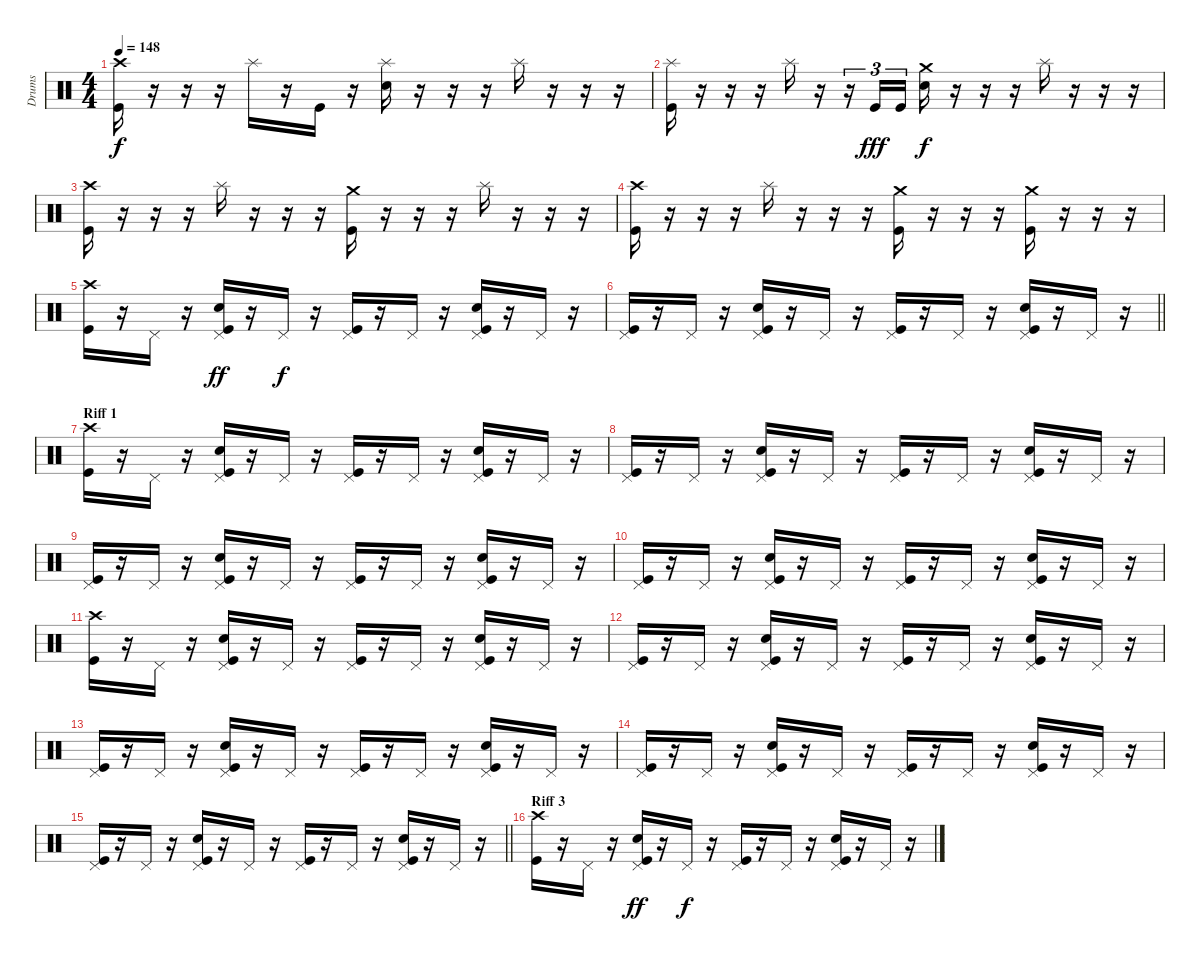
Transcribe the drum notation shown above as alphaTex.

\track ("Drums" "Drums") {instrument percussion}
\staff {score}
\articulation defaults
\ts (4 4)
\tempo 148
\clef neutral
\ks c
("Crash high (hit)" "Kick (hit)").16{dy f} r.16 r.16 r.16 "Splash (hit)".16 r.16 "Kick (hit)".16 r.16 ("Splash (hit)" "Electric Snare (hit)").16 r.16 r.16 r.16 "Splash (hit)".16 r.16 r.16 r.16 |
("Splash (hit)" "Kick (hit)").16 r.16 r.16 r.16 "Splash (hit)".16 r.16 r.16{tu (3 2)} "Kick (hit)".16{tu (3 2) dy fff} "Kick (hit)".16{tu (3 2)} ("Crash medium (hit)" "Electric Snare (hit)").16{dy f} r.16 r.16 r.16 "Splash (hit)".16 r.16 r.16 r.16 |
("Crash high (hit)" "Kick (hit)").16 r.16 r.16 r.16 "Splash (hit)".16 r.16 r.16 r.16 ("Crash medium (hit)" "Kick (hit)").16 r.16 r.16 r.16 "Splash (hit)".16 r.16 r.16 r.16 |
("Crash high (hit)" "Kick (hit)").16 r.16 r.16 r.16 "Splash (hit)".16 r.16 r.16 r.16 ("Crash medium (hit)" "Kick (hit)").16 r.16 r.16 r.16 ("Crash medium (hit)" "Kick (hit)").16 r.16 r.16 r.16 |
("Crash high (hit)" "Kick (hit)").16 r.16 "Pedal Hi-Hat (hit)".16 r.16 ("Pedal Hi-Hat (hit)" "Electric Snare (hit)" "Kick (hit)").16{dy ff} r.16 "Pedal Hi-Hat (hit)".16{dy f} r.16 ("Pedal Hi-Hat (hit)" "Kick (hit)").16 r.16 "Pedal Hi-Hat (hit)".16 r.16 ("Pedal Hi-Hat (hit)" "Electric Snare (hit)" "Kick (hit)").16 r.16 "Pedal Hi-Hat (hit)".16 r.16 |
\barLineRight lightlight
("Pedal Hi-Hat (hit)" "Kick (hit)").16 r.16 "Pedal Hi-Hat (hit)".16 r.16 ("Pedal Hi-Hat (hit)" "Electric Snare (hit)" "Kick (hit)").16 r.16 "Pedal Hi-Hat (hit)".16 r.16 ("Pedal Hi-Hat (hit)" "Kick (hit)").16 r.16 "Pedal Hi-Hat (hit)".16 r.16 ("Pedal Hi-Hat (hit)" "Electric Snare (hit)" "Kick (hit)").16 r.16 "Pedal Hi-Hat (hit)".16 r.16 |
\section ("" "Riff 1")
("Crash high (hit)" "Kick (hit)").16 r.16 "Pedal Hi-Hat (hit)".16 r.16 ("Pedal Hi-Hat (hit)" "Electric Snare (hit)" "Kick (hit)").16 r.16 "Pedal Hi-Hat (hit)".16 r.16 ("Pedal Hi-Hat (hit)" "Kick (hit)").16 r.16 "Pedal Hi-Hat (hit)".16 r.16 ("Pedal Hi-Hat (hit)" "Electric Snare (hit)" "Kick (hit)").16 r.16 "Pedal Hi-Hat (hit)".16 r.16 |
("Pedal Hi-Hat (hit)" "Kick (hit)").16 r.16 "Pedal Hi-Hat (hit)".16 r.16 ("Pedal Hi-Hat (hit)" "Electric Snare (hit)" "Kick (hit)").16 r.16 "Pedal Hi-Hat (hit)".16 r.16 ("Pedal Hi-Hat (hit)" "Kick (hit)").16 r.16 "Pedal Hi-Hat (hit)".16 r.16 ("Pedal Hi-Hat (hit)" "Electric Snare (hit)" "Kick (hit)").16 r.16 "Pedal Hi-Hat (hit)".16 r.16 |
("Pedal Hi-Hat (hit)" "Kick (hit)").16 r.16 "Pedal Hi-Hat (hit)".16 r.16 ("Pedal Hi-Hat (hit)" "Electric Snare (hit)" "Kick (hit)").16 r.16 "Pedal Hi-Hat (hit)".16 r.16 ("Pedal Hi-Hat (hit)" "Kick (hit)").16 r.16 "Pedal Hi-Hat (hit)".16 r.16 ("Pedal Hi-Hat (hit)" "Electric Snare (hit)" "Kick (hit)").16 r.16 "Pedal Hi-Hat (hit)".16 r.16 |
("Pedal Hi-Hat (hit)" "Kick (hit)").16 r.16 "Pedal Hi-Hat (hit)".16 r.16 ("Pedal Hi-Hat (hit)" "Electric Snare (hit)" "Kick (hit)").16 r.16 "Pedal Hi-Hat (hit)".16 r.16 ("Pedal Hi-Hat (hit)" "Kick (hit)").16 r.16 "Pedal Hi-Hat (hit)".16 r.16 ("Pedal Hi-Hat (hit)" "Electric Snare (hit)" "Kick (hit)").16 r.16 "Pedal Hi-Hat (hit)".16 r.16 |
("Crash high (hit)" "Kick (hit)").16 r.16 "Pedal Hi-Hat (hit)".16 r.16 ("Pedal Hi-Hat (hit)" "Electric Snare (hit)" "Kick (hit)").16 r.16 "Pedal Hi-Hat (hit)".16 r.16 ("Pedal Hi-Hat (hit)" "Kick (hit)").16 r.16 "Pedal Hi-Hat (hit)".16 r.16 ("Pedal Hi-Hat (hit)" "Electric Snare (hit)" "Kick (hit)").16 r.16 "Pedal Hi-Hat (hit)".16 r.16 |
("Pedal Hi-Hat (hit)" "Kick (hit)").16 r.16 "Pedal Hi-Hat (hit)".16 r.16 ("Pedal Hi-Hat (hit)" "Electric Snare (hit)" "Kick (hit)").16 r.16 "Pedal Hi-Hat (hit)".16 r.16 ("Pedal Hi-Hat (hit)" "Kick (hit)").16 r.16 "Pedal Hi-Hat (hit)".16 r.16 ("Pedal Hi-Hat (hit)" "Electric Snare (hit)" "Kick (hit)").16 r.16 "Pedal Hi-Hat (hit)".16 r.16 |
("Pedal Hi-Hat (hit)" "Kick (hit)").16 r.16 "Pedal Hi-Hat (hit)".16 r.16 ("Pedal Hi-Hat (hit)" "Electric Snare (hit)" "Kick (hit)").16 r.16 "Pedal Hi-Hat (hit)".16 r.16 ("Pedal Hi-Hat (hit)" "Kick (hit)").16 r.16 "Pedal Hi-Hat (hit)".16 r.16 ("Pedal Hi-Hat (hit)" "Electric Snare (hit)" "Kick (hit)").16 r.16 "Pedal Hi-Hat (hit)".16 r.16 |
("Pedal Hi-Hat (hit)" "Kick (hit)").16 r.16 "Pedal Hi-Hat (hit)".16 r.16 ("Pedal Hi-Hat (hit)" "Electric Snare (hit)" "Kick (hit)").16 r.16 "Pedal Hi-Hat (hit)".16 r.16 ("Pedal Hi-Hat (hit)" "Kick (hit)").16 r.16 "Pedal Hi-Hat (hit)".16 r.16 ("Pedal Hi-Hat (hit)" "Electric Snare (hit)" "Kick (hit)").16 r.16 "Pedal Hi-Hat (hit)".16 r.16 |
\barLineRight lightlight
("Pedal Hi-Hat (hit)" "Kick (hit)").16 r.16 "Pedal Hi-Hat (hit)".16 r.16 ("Pedal Hi-Hat (hit)" "Electric Snare (hit)" "Kick (hit)").16 r.16 "Pedal Hi-Hat (hit)".16 r.16 ("Pedal Hi-Hat (hit)" "Kick (hit)").16 r.16 "Pedal Hi-Hat (hit)".16 r.16 ("Pedal Hi-Hat (hit)" "Electric Snare (hit)" "Kick (hit)").16 r.16 "Pedal Hi-Hat (hit)".16 r.16 |
\section ("" "Riff 3")
("Crash high (hit)" "Kick (hit)").16 r.16 "Pedal Hi-Hat (hit)".16 r.16 ("Pedal Hi-Hat (hit)" "Electric Snare (hit)" "Kick (hit)").16{dy ff} r.16 "Pedal Hi-Hat (hit)".16{dy f} r.16 ("Pedal Hi-Hat (hit)" "Kick (hit)").16 r.16 "Pedal Hi-Hat (hit)".16 r.16 ("Pedal Hi-Hat (hit)" "Electric Snare (hit)" "Kick (hit)").16 r.16 "Pedal Hi-Hat (hit)".16 r.16
